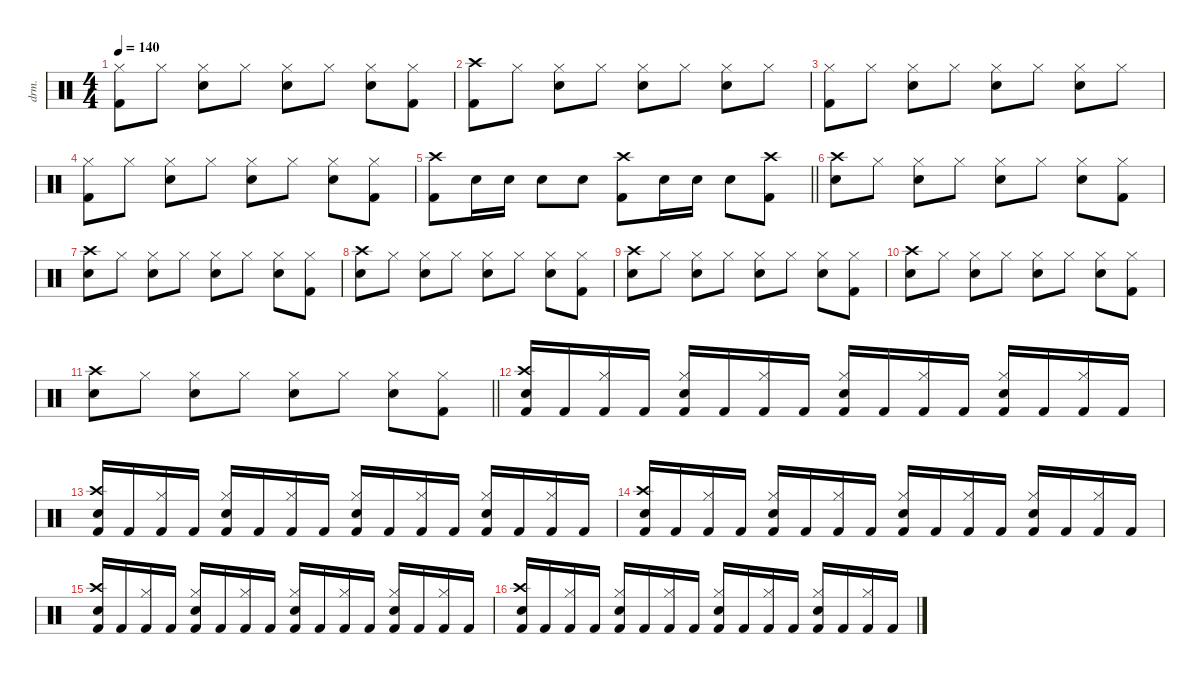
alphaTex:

\defaultSystemsLayout 4
\hideDynamics
\bracketExtendMode nobrackets
\otherSystemsTrackNameOrientation horizontal
\track ("Drums" "drm.") {defaultSystemsLayout 4 instrument percussion}
\staff {score}
\articulation defaults
\ts (4 4)
\tempo 140
\clef neutral
\ks aminor
("Hi-Hat (closed)" "Kick (hit) 2").8{dy f beam Down} "Hi-Hat (closed)".8{beam Down} ("Hi-Hat (closed)" "Snare (hit) 2").8{beam Down} "Hi-Hat (closed)".8{beam Down} ("Hi-Hat (closed)" "Snare (hit) 2").8{beam Down} "Hi-Hat (closed)".8{beam Down} ("Hi-Hat (closed)" "Snare (hit) 2").8{beam Down} ("Hi-Hat (closed)" "Kick (hit) 2").8{beam Down} |
("Crash high (hit)" "Kick (hit) 2").8{beam Down} "Hi-Hat (closed)".8{beam Down} ("Hi-Hat (closed)" "Snare (hit) 2").8{beam Down} "Hi-Hat (closed)".8{beam Down} ("Hi-Hat (closed)" "Snare (hit) 2").8{beam Down} "Hi-Hat (closed)".8{beam Down} ("Hi-Hat (closed)" "Snare (hit) 2").8{beam Down} "Hi-Hat (closed)".8{beam Down} |
("Hi-Hat (closed)" "Kick (hit) 2").8{beam Down} "Hi-Hat (closed)".8{beam Down} ("Hi-Hat (closed)" "Snare (hit) 2").8{beam Down} "Hi-Hat (closed)".8{beam Down} ("Hi-Hat (closed)" "Snare (hit) 2").8{beam Down} "Hi-Hat (closed)".8{beam Down} ("Hi-Hat (closed)" "Snare (hit) 2").8{beam Down} "Hi-Hat (closed)".8{beam Down} |
("Hi-Hat (closed)" "Kick (hit) 2").8{beam Down} "Hi-Hat (closed)".8{beam Down} ("Hi-Hat (closed)" "Snare (hit) 2").8{beam Down} "Hi-Hat (closed)".8{beam Down} ("Hi-Hat (closed)" "Snare (hit) 2").8{beam Down} "Hi-Hat (closed)".8{beam Down} ("Hi-Hat (closed)" "Snare (hit) 2").8{beam Down} ("Hi-Hat (closed)" "Kick (hit) 2").8{beam Down} |
\barLineRight lightlight
("Crash high (hit)" "Kick (hit) 2").8{beam Down} "Snare (hit) 2".16{beam Down} "Snare (hit) 2".16{beam Down} "Snare (hit) 2".8{beam Down} "Snare (hit) 2".8{beam Down} ("Crash high (hit)" "Kick (hit) 2").8{beam Down} "Snare (hit) 2".16{beam Down} "Snare (hit) 2".16{beam Down} "Snare (hit) 2".8{beam Down} ("Crash high (hit)" "Kick (hit) 2").8{beam Down} |
("Crash high (hit)" "Snare (hit) 2").8{beam Down} "Hi-Hat (closed)".8{beam Down} ("Hi-Hat (closed)" "Snare (hit) 2").8{beam Down} "Hi-Hat (closed)".8{beam Down} ("Hi-Hat (closed)" "Snare (hit) 2").8{beam Down} "Hi-Hat (closed)".8{beam Down} ("Hi-Hat (closed)" "Snare (hit) 2").8{beam Down} ("Hi-Hat (closed)" "Kick (hit) 2").8{beam Down} |
("Crash high (hit)" "Snare (hit) 2").8{beam Down} "Hi-Hat (closed)".8{beam Down} ("Hi-Hat (closed)" "Snare (hit) 2").8{beam Down} "Hi-Hat (closed)".8{beam Down} ("Hi-Hat (closed)" "Snare (hit) 2").8{beam Down} "Hi-Hat (closed)".8{beam Down} ("Hi-Hat (closed)" "Snare (hit) 2").8{beam Down} ("Hi-Hat (closed)" "Kick (hit) 2").8{beam Down} |
("Crash high (hit)" "Snare (hit) 2").8{beam Down} "Hi-Hat (closed)".8{beam Down} ("Hi-Hat (closed)" "Snare (hit) 2").8{beam Down} "Hi-Hat (closed)".8{beam Down} ("Hi-Hat (closed)" "Snare (hit) 2").8{beam Down} "Hi-Hat (closed)".8{beam Down} ("Hi-Hat (closed)" "Snare (hit) 2").8{beam Down} ("Hi-Hat (closed)" "Kick (hit) 2").8{beam Down} |
("Crash high (hit)" "Snare (hit) 2").8{beam Down} "Hi-Hat (closed)".8{beam Down} ("Hi-Hat (closed)" "Snare (hit) 2").8{beam Down} "Hi-Hat (closed)".8{beam Down} ("Hi-Hat (closed)" "Snare (hit) 2").8{beam Down} "Hi-Hat (closed)".8{beam Down} ("Hi-Hat (closed)" "Snare (hit) 2").8{beam Down} ("Hi-Hat (closed)" "Kick (hit) 2").8{beam Down} |
("Crash high (hit)" "Snare (hit) 2").8{beam Down} "Hi-Hat (closed)".8{beam Down} ("Hi-Hat (closed)" "Snare (hit) 2").8{beam Down} "Hi-Hat (closed)".8{beam Down} ("Hi-Hat (closed)" "Snare (hit) 2").8{beam Down} "Hi-Hat (closed)".8{beam Down} ("Hi-Hat (closed)" "Snare (hit) 2").8{beam Down} ("Hi-Hat (closed)" "Kick (hit) 2").8{beam Down} |
\barLineRight lightlight
("Crash high (hit)" "Snare (hit) 2").8{beam Down} "Hi-Hat (closed)".8{beam Down} ("Hi-Hat (closed)" "Snare (hit) 2").8{beam Down} "Hi-Hat (closed)".8{beam Down} ("Hi-Hat (closed)" "Snare (hit) 2").8{beam Down} "Hi-Hat (closed)".8{beam Down} ("Hi-Hat (closed)" "Snare (hit) 2").8{beam Down} ("Hi-Hat (closed)" "Kick (hit) 2").8{beam Down} |
("Crash high (hit)" "Snare (hit) 2" "Kick (hit) 2").16{beam Up} "Kick (hit) 2".16{beam Up} ("Hi-Hat (closed)" "Kick (hit) 2").16{beam Up} "Kick (hit) 2".16{beam Up} ("Hi-Hat (closed)" "Snare (hit) 2" "Kick (hit) 2").16{beam Up} "Kick (hit) 2".16{beam Up} ("Hi-Hat (closed)" "Kick (hit) 2").16{beam Up} "Kick (hit) 2".16{beam Up} ("Hi-Hat (closed)" "Snare (hit) 2" "Kick (hit) 2").16{beam Up} "Kick (hit) 2".16{beam Up} ("Hi-Hat (closed)" "Kick (hit) 2").16{beam Up} "Kick (hit) 2".16{beam Up} ("Hi-Hat (closed)" "Snare (hit) 2" "Kick (hit) 2").16{beam Up} "Kick (hit) 2".16{beam Up} ("Hi-Hat (closed)" "Kick (hit) 2").16{beam Up} "Kick (hit) 2".16{beam Up} |
("Crash high (hit)" "Snare (hit) 2" "Kick (hit) 2").16{beam Up} "Kick (hit) 2".16{beam Up} ("Hi-Hat (closed)" "Kick (hit) 2").16{beam Up} "Kick (hit) 2".16{beam Up} ("Hi-Hat (closed)" "Snare (hit) 2" "Kick (hit) 2").16{beam Up} "Kick (hit) 2".16{beam Up} ("Hi-Hat (closed)" "Kick (hit) 2").16{beam Up} "Kick (hit) 2".16{beam Up} ("Hi-Hat (closed)" "Snare (hit) 2" "Kick (hit) 2").16{beam Up} "Kick (hit) 2".16{beam Up} ("Hi-Hat (closed)" "Kick (hit) 2").16{beam Up} "Kick (hit) 2".16{beam Up} ("Hi-Hat (closed)" "Snare (hit) 2" "Kick (hit) 2").16{beam Up} "Kick (hit) 2".16{beam Up} ("Hi-Hat (closed)" "Kick (hit) 2").16{beam Up} "Kick (hit) 2".16{beam Up} |
("Crash high (hit)" "Snare (hit) 2" "Kick (hit) 2").16{beam Up} "Kick (hit) 2".16{beam Up} ("Hi-Hat (closed)" "Kick (hit) 2").16{beam Up} "Kick (hit) 2".16{beam Up} ("Hi-Hat (closed)" "Snare (hit) 2" "Kick (hit) 2").16{beam Up} "Kick (hit) 2".16{beam Up} ("Hi-Hat (closed)" "Kick (hit) 2").16{beam Up} "Kick (hit) 2".16{beam Up} ("Hi-Hat (closed)" "Snare (hit) 2" "Kick (hit) 2").16{beam Up} "Kick (hit) 2".16{beam Up} ("Hi-Hat (closed)" "Kick (hit) 2").16{beam Up} "Kick (hit) 2".16{beam Up} ("Hi-Hat (closed)" "Snare (hit) 2" "Kick (hit) 2").16{beam Up} "Kick (hit) 2".16{beam Up} ("Hi-Hat (closed)" "Kick (hit) 2").16{beam Up} "Kick (hit) 2".16{beam Up} |
("Crash high (hit)" "Snare (hit) 2" "Kick (hit) 2").16{beam Up} "Kick (hit) 2".16{beam Up} ("Hi-Hat (closed)" "Kick (hit) 2").16{beam Up} "Kick (hit) 2".16{beam Up} ("Hi-Hat (closed)" "Snare (hit) 2" "Kick (hit) 2").16{beam Up} "Kick (hit) 2".16{beam Up} ("Hi-Hat (closed)" "Kick (hit) 2").16{beam Up} "Kick (hit) 2".16{beam Up} ("Hi-Hat (closed)" "Snare (hit) 2" "Kick (hit) 2").16{beam Up} "Kick (hit) 2".16{beam Up} ("Hi-Hat (closed)" "Kick (hit) 2").16{beam Up} "Kick (hit) 2".16{beam Up} ("Hi-Hat (closed)" "Snare (hit) 2" "Kick (hit) 2").16{beam Up} "Kick (hit) 2".16{beam Up} ("Hi-Hat (closed)" "Kick (hit) 2").16{beam Up} "Kick (hit) 2".16{beam Up} |
("Crash high (hit)" "Snare (hit) 2" "Kick (hit) 2").16{beam Up} "Kick (hit) 2".16{beam Up} ("Hi-Hat (closed)" "Kick (hit) 2").16{beam Up} "Kick (hit) 2".16{beam Up} ("Hi-Hat (closed)" "Snare (hit) 2" "Kick (hit) 2").16{beam Up} "Kick (hit) 2".16{beam Up} ("Hi-Hat (closed)" "Kick (hit) 2").16{beam Up} "Kick (hit) 2".16{beam Up} ("Hi-Hat (closed)" "Snare (hit) 2" "Kick (hit) 2").16{beam Up} "Kick (hit) 2".16{beam Up} ("Hi-Hat (closed)" "Kick (hit) 2").16{beam Up} "Kick (hit) 2".16{beam Up} ("Hi-Hat (closed)" "Snare (hit) 2" "Kick (hit) 2").16{beam Up} "Kick (hit) 2".16{beam Up} ("Hi-Hat (closed)" "Kick (hit) 2").16{beam Up} "Kick (hit) 2".16{beam Up}
